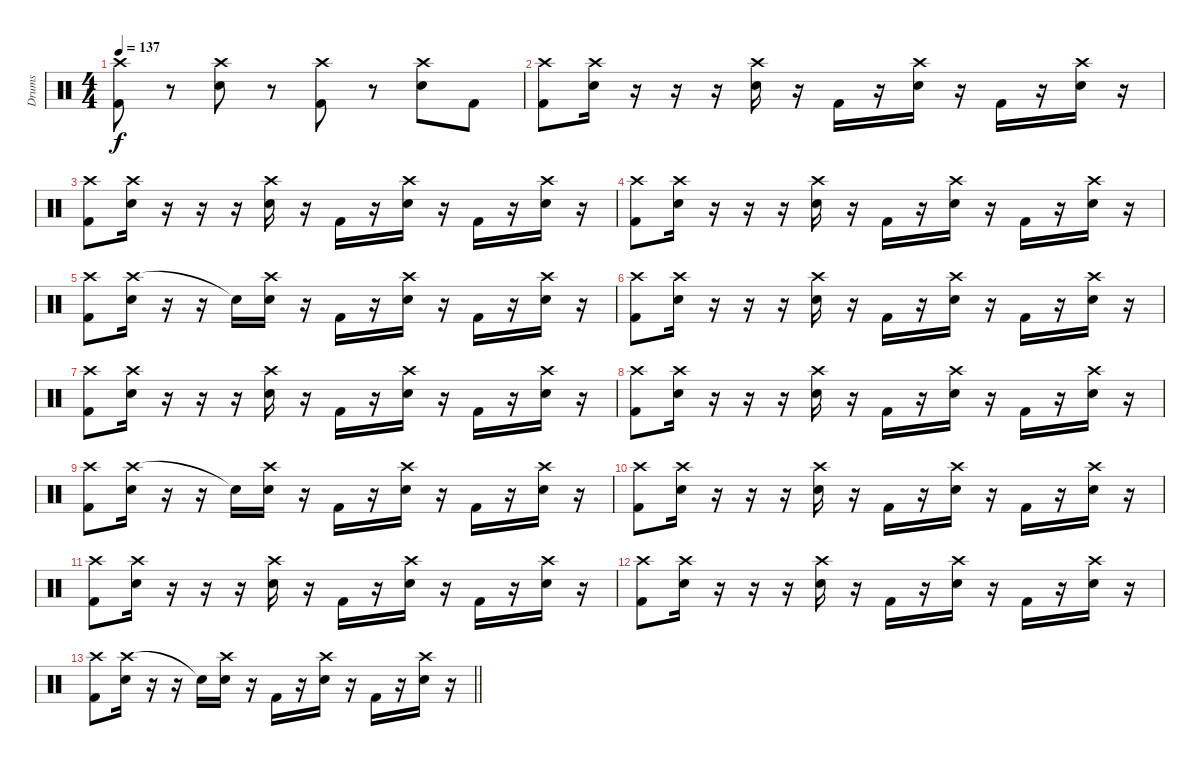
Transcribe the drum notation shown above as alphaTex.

\track ("Drums" "Drums") {instrument percussion}
\staff {score}
\articulation defaults
\ts (4 4)
\tempo 137
\clef neutral
\ks c
("Crash high (hit)" "Kick (hit) 2").8{dy f} r.8 ("Crash high (hit)" "Electric Snare (hit)").8 r.8 ("Crash high (hit)" "Kick (hit) 2").8 r.8 ("Crash high (hit)" "Electric Snare (hit)").8 "Kick (hit) 2".8 |
("Crash high (hit)" "Kick (hit) 2").8 ("Crash high (hit)" "Electric Snare (hit)").16 r.16 r.16 r.16 ("Crash high (hit)" "Electric Snare (hit)").16 r.16 "Kick (hit) 2".16 r.16 ("Crash high (hit)" "Electric Snare (hit)").16 r.16 "Kick (hit) 2".16 r.16 ("Crash high (hit)" "Electric Snare (hit)").16 r.16 |
("Crash high (hit)" "Kick (hit) 2").8 ("Crash high (hit)" "Electric Snare (hit)").16 r.16 r.16 r.16 ("Crash high (hit)" "Electric Snare (hit)").16 r.16 "Kick (hit) 2".16 r.16 ("Crash high (hit)" "Electric Snare (hit)").16 r.16 "Kick (hit) 2".16 r.16 ("Crash high (hit)" "Electric Snare (hit)").16 r.16 |
("Crash high (hit)" "Kick (hit) 2").8 ("Crash high (hit)" "Electric Snare (hit)").16 r.16 r.16 r.16 ("Crash high (hit)" "Electric Snare (hit)").16 r.16 "Kick (hit) 2".16 r.16 ("Crash high (hit)" "Electric Snare (hit)").16 r.16 "Kick (hit) 2".16 r.16 ("Crash high (hit)" "Electric Snare (hit)").16 r.16 |
("Crash high (hit)" "Kick (hit) 2").8 ("Crash high (hit)" "Electric Snare (hit)").16 r.16 r.16 "Snare (hit)"{t}.16 ("Crash high (hit)" "Electric Snare (hit)").16 r.16 "Kick (hit) 2".16 r.16 ("Crash high (hit)" "Electric Snare (hit)").16 r.16 "Kick (hit) 2".16 r.16 ("Crash high (hit)" "Electric Snare (hit)").16 r.16 |
("Crash high (hit)" "Kick (hit) 2").8 ("Crash high (hit)" "Electric Snare (hit)").16 r.16 r.16 r.16 ("Crash high (hit)" "Electric Snare (hit)").16 r.16 "Kick (hit) 2".16 r.16 ("Crash high (hit)" "Electric Snare (hit)").16 r.16 "Kick (hit) 2".16 r.16 ("Crash high (hit)" "Electric Snare (hit)").16 r.16 |
("Crash high (hit)" "Kick (hit) 2").8 ("Crash high (hit)" "Electric Snare (hit)").16 r.16 r.16 r.16 ("Crash high (hit)" "Electric Snare (hit)").16 r.16 "Kick (hit) 2".16 r.16 ("Crash high (hit)" "Electric Snare (hit)").16 r.16 "Kick (hit) 2".16 r.16 ("Crash high (hit)" "Electric Snare (hit)").16 r.16 |
("Crash high (hit)" "Kick (hit) 2").8 ("Crash high (hit)" "Electric Snare (hit)").16 r.16 r.16 r.16 ("Crash high (hit)" "Electric Snare (hit)").16 r.16 "Kick (hit) 2".16 r.16 ("Crash high (hit)" "Electric Snare (hit)").16 r.16 "Kick (hit) 2".16 r.16 ("Crash high (hit)" "Electric Snare (hit)").16 r.16 |
("Crash high (hit)" "Kick (hit) 2").8 ("Crash high (hit)" "Electric Snare (hit)").16 r.16 r.16 "Snare (hit)"{t}.16 ("Crash high (hit)" "Electric Snare (hit)").16 r.16 "Kick (hit) 2".16 r.16 ("Crash high (hit)" "Electric Snare (hit)").16 r.16 "Kick (hit) 2".16 r.16 ("Crash high (hit)" "Electric Snare (hit)").16 r.16 |
("Crash high (hit)" "Kick (hit) 2").8 ("Crash high (hit)" "Electric Snare (hit)").16 r.16 r.16 r.16 ("Crash high (hit)" "Electric Snare (hit)").16 r.16 "Kick (hit) 2".16 r.16 ("Crash high (hit)" "Electric Snare (hit)").16 r.16 "Kick (hit) 2".16 r.16 ("Crash high (hit)" "Electric Snare (hit)").16 r.16 |
("Crash high (hit)" "Kick (hit) 2").8 ("Crash high (hit)" "Electric Snare (hit)").16 r.16 r.16 r.16 ("Crash high (hit)" "Electric Snare (hit)").16 r.16 "Kick (hit) 2".16 r.16 ("Crash high (hit)" "Electric Snare (hit)").16 r.16 "Kick (hit) 2".16 r.16 ("Crash high (hit)" "Electric Snare (hit)").16 r.16 |
("Crash high (hit)" "Kick (hit) 2").8 ("Crash high (hit)" "Electric Snare (hit)").16 r.16 r.16 r.16 ("Crash high (hit)" "Electric Snare (hit)").16 r.16 "Kick (hit) 2".16 r.16 ("Crash high (hit)" "Electric Snare (hit)").16 r.16 "Kick (hit) 2".16 r.16 ("Crash high (hit)" "Electric Snare (hit)").16 r.16 |
\barLineRight lightlight
("Crash high (hit)" "Kick (hit) 2").8 ("Crash high (hit)" "Electric Snare (hit)").16 r.16 r.16 "Snare (hit)"{t}.16 ("Crash high (hit)" "Electric Snare (hit)").16 r.16 "Kick (hit) 2".16 r.16 ("Crash high (hit)" "Electric Snare (hit)").16 r.16 "Kick (hit) 2".16 r.16 ("Crash high (hit)" "Electric Snare (hit)").16 r.16
